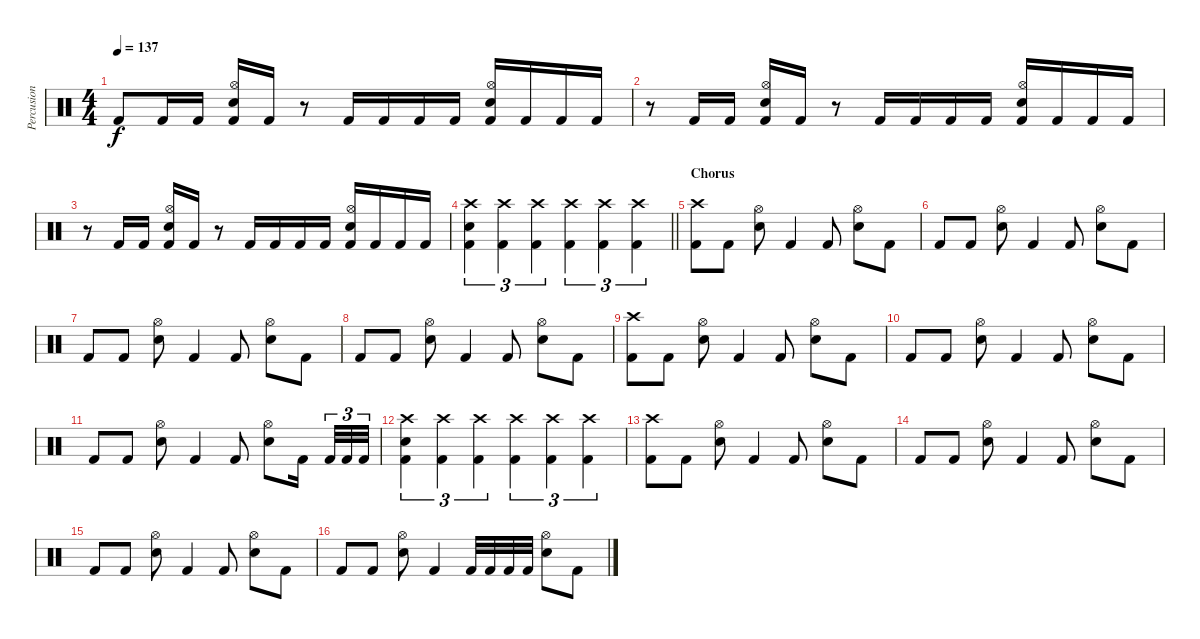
\track ("Percusion" "Percusion") {instrument percussion}
\staff {score}
\articulation defaults
\ts (4 4)
\tempo 137
\clef neutral
\ks c "Kick (hit) 2".8{dy f} "Kick (hit) 2".16 "Kick (hit) 2".16
("Hi-Hat (open)" "Snare (hit) 2" "Kick (hit) 2").16 "Kick (hit) 2".16 r.8 "Kick (hit) 2".16 "Kick (hit) 2".16 "Kick (hit) 2".16 "Kick (hit) 2".16 ("Hi-Hat (open)" "Snare (hit) 2" "Kick (hit) 2").16 "Kick (hit) 2".16 "Kick (hit) 2".16 "Kick (hit) 2".16 |
r.8 "Kick (hit) 2".16 "Kick (hit) 2".16 ("Hi-Hat (open)" "Snare (hit) 2" "Kick (hit) 2").16 "Kick (hit) 2".16 r.8 "Kick (hit) 2".16 "Kick (hit) 2".16 "Kick (hit) 2".16 "Kick (hit) 2".16 ("Hi-Hat (open)" "Snare (hit) 2" "Kick (hit) 2").16 "Kick (hit) 2".16 "Kick (hit) 2".16 "Kick (hit) 2".16 |
r.8 "Kick (hit) 2".16 "Kick (hit) 2".16 ("Hi-Hat (open)" "Snare (hit) 2" "Kick (hit) 2").16 "Kick (hit) 2".16 r.8 "Kick (hit) 2".16 "Kick (hit) 2".16 "Kick (hit) 2".16 "Kick (hit) 2".16 ("Hi-Hat (open)" "Snare (hit) 2" "Kick (hit) 2").16 "Kick (hit) 2".16 "Kick (hit) 2".16 "Kick (hit) 2".16 |
\barLineRight lightlight
("Crash high (hit)" "Snare (hit) 2" "Kick (hit) 2").4{tu (3 2)} ("Crash high (hit)" "Kick (hit) 2").4{tu (3 2)} ("Crash high (hit)" "Kick (hit) 2").4{tu (3 2)} ("Crash high (hit)" "Kick (hit) 2").4{tu (3 2)} ("Crash high (hit)" "Kick (hit) 2").4{tu (3 2)} ("Crash high (hit)" "Kick (hit) 2").4{tu (3 2)} |
\section ("" "Chorus")
("Crash high (hit)" "Kick (hit) 2").8 "Kick (hit) 2".8 ("Hi-Hat (open)" "Snare (hit) 2").8 "Kick (hit) 2".4 "Kick (hit) 2".8 ("Hi-Hat (open)" "Snare (hit) 2").8 "Kick (hit) 2".8 |
"Kick (hit) 2".8 "Kick (hit) 2".8 ("Hi-Hat (open)" "Snare (hit) 2").8 "Kick (hit) 2".4 "Kick (hit) 2".8 ("Hi-Hat (open)" "Snare (hit) 2").8 "Kick (hit) 2".8 |
"Kick (hit) 2".8 "Kick (hit) 2".8 ("Hi-Hat (open)" "Snare (hit) 2").8 "Kick (hit) 2".4 "Kick (hit) 2".8 ("Hi-Hat (open)" "Snare (hit) 2").8 "Kick (hit) 2".8 |
"Kick (hit) 2".8 "Kick (hit) 2".8 ("Hi-Hat (open)" "Snare (hit) 2").8 "Kick (hit) 2".4 "Kick (hit) 2".8 ("Hi-Hat (open)" "Snare (hit) 2").8 "Kick (hit) 2".8 |
("Crash high (hit)" "Kick (hit) 2").8 "Kick (hit) 2".8 ("Hi-Hat (open)" "Snare (hit) 2").8 "Kick (hit) 2".4 "Kick (hit) 2".8 ("Hi-Hat (open)" "Snare (hit) 2").8 "Kick (hit) 2".8 |
"Kick (hit) 2".8 "Kick (hit) 2".8 ("Hi-Hat (open)" "Snare (hit) 2").8 "Kick (hit) 2".4 "Kick (hit) 2".8 ("Hi-Hat (open)" "Snare (hit) 2").8 "Kick (hit) 2".8 |
"Kick (hit) 2".8 "Kick (hit) 2".8 ("Hi-Hat (open)" "Snare (hit) 2").8 "Kick (hit) 2".4 "Kick (hit) 2".8 ("Hi-Hat (open)" "Snare (hit) 2").8 "Kick (hit) 2".16{beam splitsecondary} "Kick (hit) 2".32{tu (3 2)} "Kick (hit) 2".32{tu (3 2)} "Kick (hit) 2".32{tu (3 2)} |
("Crash high (hit)" "Snare (hit) 2" "Kick (hit) 2").4{tu (3 2)} ("Crash high (hit)" "Kick (hit) 2").4{tu (3 2)} ("Crash high (hit)" "Kick (hit) 2").4{tu (3 2)} ("Crash high (hit)" "Kick (hit) 2").4{tu (3 2)} ("Crash high (hit)" "Kick (hit) 2").4{tu (3 2)} ("Crash high (hit)" "Kick (hit) 2").4{tu (3 2)} |
("Crash high (hit)" "Kick (hit) 2").8 "Kick (hit) 2".8 ("Hi-Hat (open)" "Snare (hit) 2").8 "Kick (hit) 2".4 "Kick (hit) 2".8 ("Hi-Hat (open)" "Snare (hit) 2").8 "Kick (hit) 2".8 |
"Kick (hit) 2".8 "Kick (hit) 2".8 ("Hi-Hat (open)" "Snare (hit) 2").8 "Kick (hit) 2".4 "Kick (hit) 2".8 ("Hi-Hat (open)" "Snare (hit) 2").8 "Kick (hit) 2".8 |
"Kick (hit) 2".8 "Kick (hit) 2".8 ("Hi-Hat (open)" "Snare (hit) 2").8 "Kick (hit) 2".4 "Kick (hit) 2".8 ("Hi-Hat (open)" "Snare (hit) 2").8 "Kick (hit) 2".8 |
"Kick (hit) 2".8 "Kick (hit) 2".8 ("Hi-Hat (open)" "Snare (hit) 2").8 "Kick (hit) 2".4 "Kick (hit) 2".32 "Kick (hit) 2".32 "Kick (hit) 2".32 "Kick (hit) 2".32 ("Hi-Hat (open)" "Snare (hit) 2").8 "Kick (hit) 2".8
